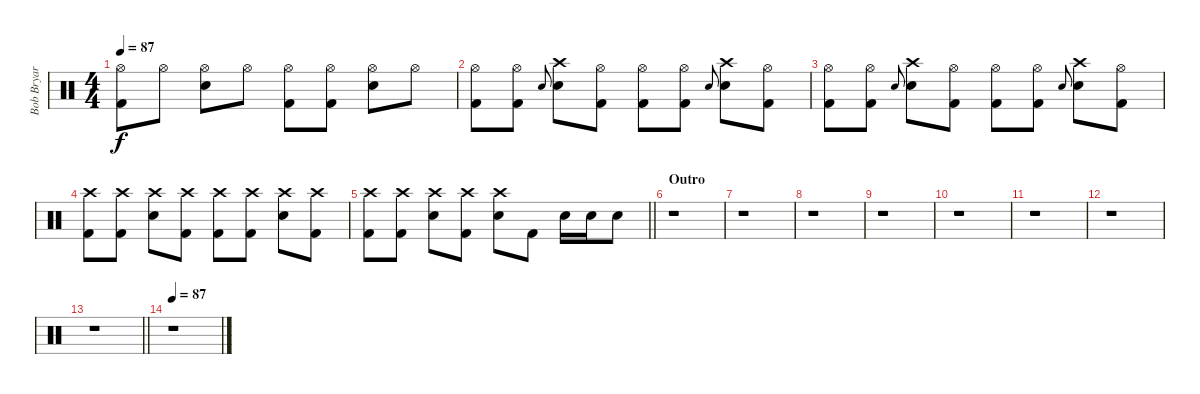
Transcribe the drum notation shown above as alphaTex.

\track ("Bob Bryar" "Bob Bryar") {instrument percussion}
\staff {score}
\articulation defaults
\ts (4 4)
\tempo 87
\clef neutral
\ks c
("Hi-Hat (open)" "Kick (hit) 2").8{dy f} "Hi-Hat (open)".8 ("Hi-Hat (open)" "Electric Snare (hit)").8 "Hi-Hat (open)".8 ("Hi-Hat (open)" "Kick (hit) 2").8 ("Hi-Hat (open)" "Kick (hit) 2").8 ("Hi-Hat (open)" "Electric Snare (hit)").8 "Hi-Hat (open)".8 |
("Hi-Hat (open)" "Kick (hit) 2").8 ("Hi-Hat (open)" "Kick (hit) 2").8 "Electric Snare (hit)".8{gr onbeat} ("Crash high (hit)" "Electric Snare (hit)").8 ("Hi-Hat (open)" "Kick (hit) 2").8 ("Hi-Hat (open)" "Kick (hit) 2").8 ("Hi-Hat (open)" "Kick (hit) 2").8 "Electric Snare (hit)".8{gr onbeat} ("Crash high (hit)" "Electric Snare (hit)").8 ("Hi-Hat (open)" "Kick (hit) 2").8 |
("Hi-Hat (open)" "Kick (hit) 2").8 ("Hi-Hat (open)" "Kick (hit) 2").8 "Electric Snare (hit)".8{gr onbeat} ("Crash high (hit)" "Electric Snare (hit)").8 ("Hi-Hat (open)" "Kick (hit) 2").8 ("Hi-Hat (open)" "Kick (hit) 2").8 ("Hi-Hat (open)" "Kick (hit) 2").8 "Electric Snare (hit)".8{gr onbeat} ("Crash high (hit)" "Electric Snare (hit)").8 ("Hi-Hat (open)" "Kick (hit) 2").8 |
("Crash high (hit)" "Kick (hit) 2").8 ("Crash high (hit)" "Kick (hit) 2").8 ("Crash high (hit)" "Electric Snare (hit)").8 ("Crash high (hit)" "Kick (hit) 2").8 ("Crash high (hit)" "Kick (hit) 2").8 ("Crash high (hit)" "Kick (hit) 2").8 ("Crash high (hit)" "Electric Snare (hit)").8 ("Crash high (hit)" "Kick (hit) 2").8 |
\barLineRight lightlight
("Crash high (hit)" "Kick (hit) 2").8 ("Crash high (hit)" "Kick (hit) 2").8 ("Crash high (hit)" "Electric Snare (hit)").8 ("Crash high (hit)" "Kick (hit) 2").8 ("Crash high (hit)" "Electric Snare (hit)").8 "Kick (hit) 2".8 "Electric Snare (hit)".16 "Electric Snare (hit)".16 "Electric Snare (hit)".8 |
\section ("" "Outro")
r.1 |
r.1 |
r.1 |
r.1 |
r.1 |
r.1 |
r.1 |
\barLineRight lightlight
r.1 |
\tempo 87
r.1
